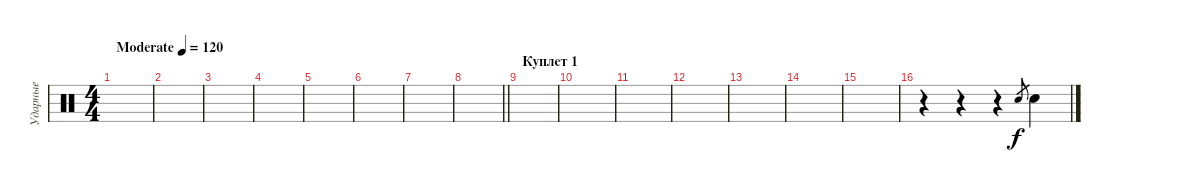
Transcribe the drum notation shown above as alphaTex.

\track ("Ударные" "Ударные") {instrument percussion}
\staff {score}
\articulation defaults
\ts (4 4)
\tempo (120 "Moderate")
\clef neutral
\ks c
|
|
|
|
|
|
|
\barLineRight lightlight
|
\section ("" "Куплет 1")
|
|
|
|
|
|
|
r.4 r.4 r.4 "Electric Snare (hit)".8{gr} "Electric Snare (hit)".4
